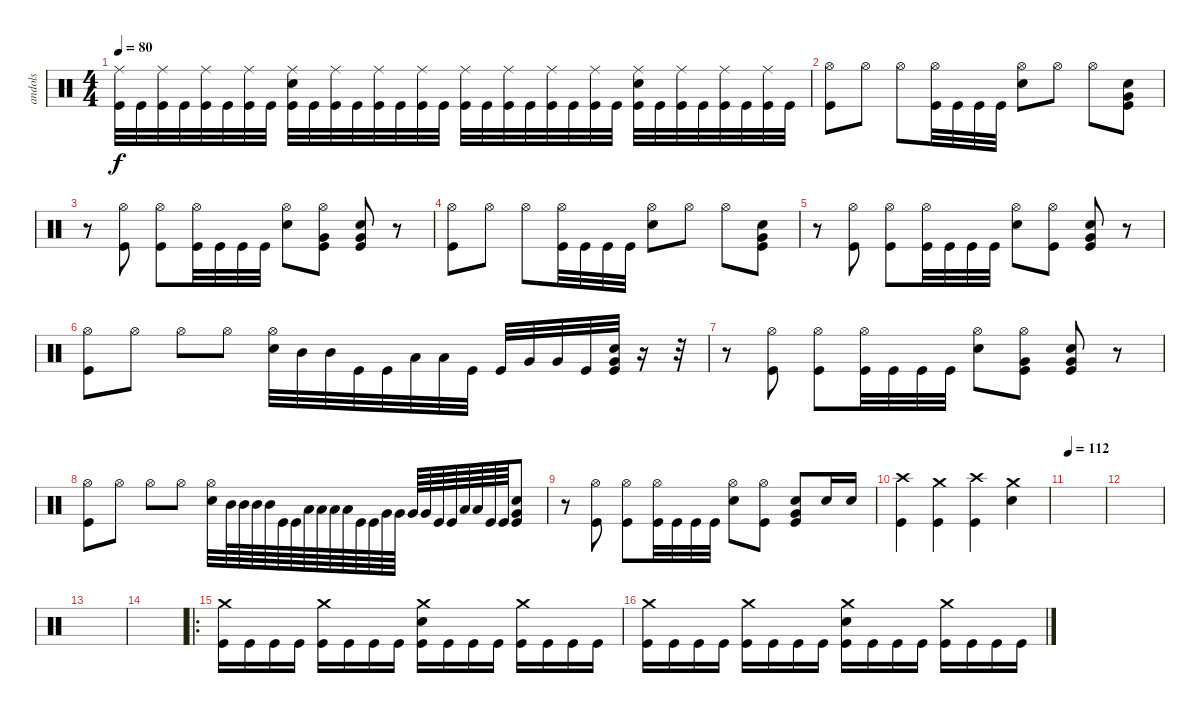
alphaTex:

\track ("andols" "andols") {instrument percussion}
\staff {score}
\articulation defaults
\ts (4 4)
\tempo 80
\clef neutral
\ks c
("Ride (middle)" "Kick (hit)").32{dy f} "Kick (hit)".32 ("Ride (middle)" "Kick (hit)").32 "Kick (hit)".32 ("Ride (middle)" "Kick (hit)").32 "Kick (hit)".32 ("Ride (middle)" "Kick (hit)").32 "Kick (hit)".32 ("Ride (middle)" "Electric Snare (hit)" "Kick (hit)").32 "Kick (hit)".32 ("Ride (middle)" "Kick (hit)").32 "Kick (hit)".32 ("Ride (middle)" "Kick (hit)").32 "Kick (hit)".32 ("Ride (middle)" "Kick (hit)").32 "Kick (hit)".32 ("Ride (middle)" "Kick (hit)").32 "Kick (hit)".32 ("Ride (middle)" "Kick (hit)").32 "Kick (hit)".32 ("Ride (middle)" "Kick (hit)").32 "Kick (hit)".32 ("Ride (middle)" "Kick (hit)").32 "Kick (hit)".32 ("Ride (middle)" "Electric Snare (hit)" "Kick (hit)").32 "Kick (hit)".32 ("Ride (middle)" "Kick (hit)").32 "Kick (hit)".32 ("Ride (middle)" "Kick (hit)").32 "Kick (hit)".32 ("Ride (middle)" "Kick (hit)").32 "Kick (hit)".32 |
("Hi-Hat (open)" "Kick (hit)").8 "Hi-Hat (open)".8 "Hi-Hat (open)".8 ("Hi-Hat (open)" "Kick (hit)").32 "Kick (hit)".32 "Kick (hit)".32 "Kick (hit)".32 ("Hi-Hat (open)" "Electric Snare (hit)").8 "Hi-Hat (open)".8 "Hi-Hat (open)".8 ("Electric Snare (hit)" "Very Low Tom (hit)" "Kick (hit)").8 |
r.8 ("Hi-Hat (open)" "Kick (hit)").8 ("Hi-Hat (open)" "Kick (hit)").8 ("Hi-Hat (open)" "Kick (hit)").32 "Kick (hit)".32 "Kick (hit)".32 "Kick (hit)".32 ("Hi-Hat (open)" "Electric Snare (hit)").8 ("Hi-Hat (open)" "Very Low Tom (hit)" "Kick (hit)").8 ("Electric Snare (hit)" "Very Low Tom (hit)" "Kick (hit)").8 r.8 |
("Hi-Hat (open)" "Kick (hit)").8 "Hi-Hat (open)".8 "Hi-Hat (open)".8 ("Hi-Hat (open)" "Kick (hit)").32 "Kick (hit)".32 "Kick (hit)".32 "Kick (hit)".32 ("Hi-Hat (open)" "Electric Snare (hit)").8 "Hi-Hat (open)".8 "Hi-Hat (open)".8 ("Electric Snare (hit)" "Very Low Tom (hit)" "Kick (hit)").8 |
r.8 ("Hi-Hat (open)" "Kick (hit)").8 ("Hi-Hat (open)" "Kick (hit)").8 ("Hi-Hat (open)" "Kick (hit)").32 "Kick (hit)".32 "Kick (hit)".32 "Kick (hit)".32 ("Hi-Hat (open)" "Electric Snare (hit)").8 ("Hi-Hat (open)" "Kick (hit)").8 ("Electric Snare (hit)" "Very Low Tom (hit)" "Kick (hit)").8 r.8 |
("Hi-Hat (open)" "Kick (hit)").8 "Hi-Hat (open)".8 "Hi-Hat (open)".8 "Hi-Hat (open)".8 ("Hi-Hat (open)" "Electric Snare (hit)").32 "Mid Tom (hit)".32 "Mid Tom (hit)".32 "Kick (hit)".32 "Kick (hit)".32 "Low Tom (hit)".32 "Low Tom (hit)".32 "Kick (hit)".32 "Kick (hit)".32 "Very Low Tom (hit)".32 "Very Low Tom (hit)".32 "Kick (hit)".32 ("Electric Snare (hit)" "Very Low Tom (hit)" "Kick (hit)").32 r.16 r.32 |
r.8 ("Hi-Hat (open)" "Kick (hit)").8 ("Hi-Hat (open)" "Kick (hit)").8 ("Hi-Hat (open)" "Kick (hit)").32 "Kick (hit)".32 "Kick (hit)".32 "Kick (hit)".32 ("Hi-Hat (open)" "Electric Snare (hit)").8 ("Hi-Hat (open)" "Very Low Tom (hit)" "Kick (hit)").8 ("Electric Snare (hit)" "Very Low Tom (hit)" "Kick (hit)").8 r.8 |
("Hi-Hat (open)" "Kick (hit)").8 "Hi-Hat (open)".8 "Hi-Hat (open)".8 "Hi-Hat (open)".8 ("Hi-Hat (open)" "Electric Snare (hit)").32 "Mid Tom (hit)".64 "Mid Tom (hit)".64 "Mid Tom (hit)".64 "Mid Tom (hit)".64 "Kick (hit)".64 "Kick (hit)".64 "Low Tom (hit)".64 "Low Tom (hit)".64 "Low Tom (hit)".64 "Low Tom (hit)".64 "Kick (hit)".64 "Kick (hit)".64 "Very Low Tom (hit)".64 "Very Low Tom (hit)".64 "Very Low Tom (hit)".64 "Very Low Tom (hit)".64 "Kick (hit)".64 "Kick (hit)".64 "Low Floor Tom (hit)".64 "Low Floor Tom (hit)".64 "Kick (hit)".64 "Kick (hit)".64 ("Electric Snare (hit)" "Very Low Tom (hit)" "Kick (hit)").8 |
r.8 ("Hi-Hat (open)" "Kick (hit)").8 ("Hi-Hat (open)" "Kick (hit)").8 ("Hi-Hat (open)" "Kick (hit)").32 "Kick (hit)".32 "Kick (hit)".32 "Kick (hit)".32 ("Hi-Hat (open)" "Electric Snare (hit)").8 ("Hi-Hat (open)" "Kick (hit)").8 ("Electric Snare (hit)" "Very Low Tom (hit)" "Kick (hit)").8 "Electric Snare (hit)".16 "Electric Snare (hit)".16 |
("Crash high (hit)" "Kick (hit)").4 ("Crash medium (hit)" "Kick (hit)").4 ("Crash high (hit)" "Kick (hit)").4 ("Crash medium (hit)" "Snare (hit)").4 |
\tempo 112
|
|
|
|
\ro
("Crash medium (hit)" "Kick (hit)").16 "Kick (hit)".16 "Kick (hit)".16 "Kick (hit)".16 ("Crash medium (hit)" "Kick (hit)").16 "Kick (hit)".16 "Kick (hit)".16 "Kick (hit)".16 ("Crash medium (hit)" "Electric Snare (hit)" "Kick (hit)").16 "Kick (hit)".16 "Kick (hit)".16 "Kick (hit)".16 ("Crash medium (hit)" "Kick (hit)").16 "Kick (hit)".16 "Kick (hit)".16 "Kick (hit)".16 |
("Crash medium (hit)" "Kick (hit)").16 "Kick (hit)".16 "Kick (hit)".16 "Kick (hit)".16 ("Crash medium (hit)" "Kick (hit)").16 "Kick (hit)".16 "Kick (hit)".16 "Kick (hit)".16 ("Crash medium (hit)" "Electric Snare (hit)" "Kick (hit)").16 "Kick (hit)".16 "Kick (hit)".16 "Kick (hit)".16 ("Crash medium (hit)" "Kick (hit)").16 "Kick (hit)".16 "Kick (hit)".16 "Kick (hit)".16
